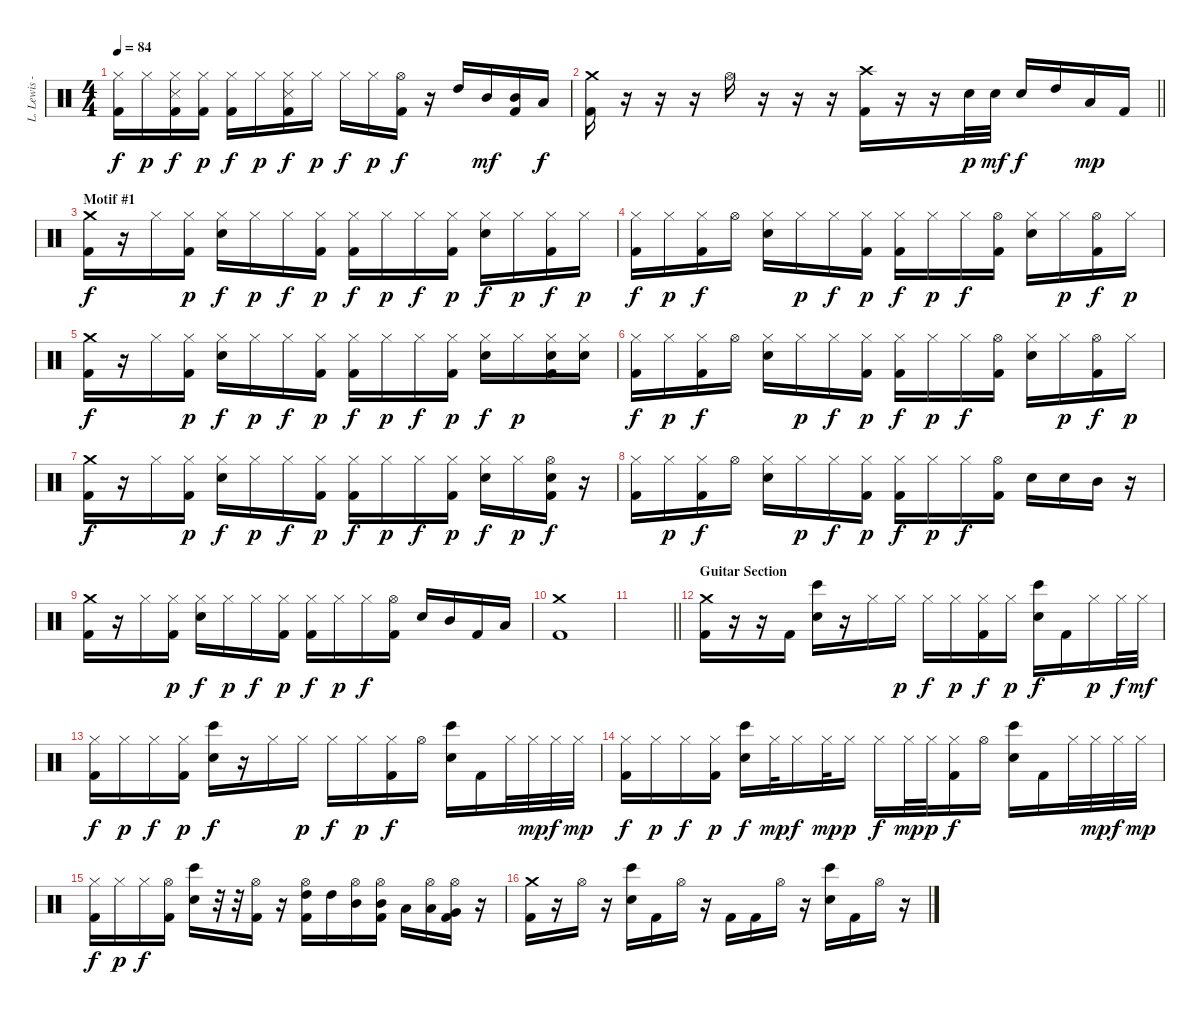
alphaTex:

\track ("L. Lewis - Drums" "L. Lewis -") {instrument percussion}
\staff {score}
\articulation defaults
\ts (4 4)
\tempo 84
\clef neutral
\ks c
("Hi-Hat (closed)" "Kick (hit) 2").16{dy f} "Hi-Hat (closed)".16{dy p} ("Hi-Hat (closed)" "Snare (side stick) 3" "Kick (hit) 2").16{dy f} ("Hi-Hat (closed)" "Kick (hit) 2").16{dy p} ("Hi-Hat (closed)" "Kick (hit) 2").16{dy f} "Hi-Hat (closed)".16{dy p} ("Hi-Hat (closed)" "Snare (side stick) 3" "Kick (hit) 2").16{dy f} "Hi-Hat (closed)".16{dy p} "Hi-Hat (closed)".16{dy f} "Hi-Hat (closed)".16{dy p} ("Hi-Hat (open)" "Kick (hit) 2").16{dy f} r.16 "High Tom (hit)".16 "Mid Tom (hit)".16{dy mf} ("Mid Tom (hit)" "Kick (hit) 2").16 "Low Tom (hit)".16{dy f} |
\barLineRight lightlight
("Crash medium (hit)" "Kick (hit) 2").16 r.16 r.16 r.16 "Hi-Hat (open)".16 r.16 r.16 r.16 ("Crash high (hit)" "Kick (hit) 2").16 r.16 r.16 "Electric Snare (hit)".32{dy p} "Electric Snare (hit)".32{dy mf} "Electric Snare (hit)".16{dy f} "High Tom (hit)".16 "Low Tom (hit)".16{dy mp} "Kick (hit) 2".16 |
\section ("" "Motif #1")
("Crash medium (hit)" "Kick (hit) 2").16{dy f} r.16 "Hi-Hat (closed)".16 ("Hi-Hat (closed)" "Kick (hit) 2").16{dy p} ("Hi-Hat (closed)" "Electric Snare (hit)").16{dy f} "Hi-Hat (closed)".16{dy p} "Hi-Hat (closed)".16{dy f} ("Hi-Hat (closed)" "Kick (hit) 2").16{dy p} ("Hi-Hat (closed)" "Kick (hit) 2").16{dy f} "Hi-Hat (closed)".16{dy p} "Hi-Hat (closed)".16{dy f} ("Hi-Hat (closed)" "Kick (hit) 2").16{dy p} ("Hi-Hat (closed)" "Electric Snare (hit)").16{dy f} "Hi-Hat (closed)".16{dy p} ("Hi-Hat (closed)" "Kick (hit) 2").16{dy f} "Hi-Hat (closed)".16{dy p} |
("Hi-Hat (closed)" "Kick (hit) 2").16{dy f} "Hi-Hat (closed)".16{dy p} ("Hi-Hat (closed)" "Kick (hit) 2").16{dy f} "Hi-Hat (open)".16 ("Hi-Hat (closed)" "Electric Snare (hit)").16 "Hi-Hat (closed)".16{dy p} "Hi-Hat (closed)".16{dy f} ("Hi-Hat (closed)" "Kick (hit) 2").16{dy p} ("Hi-Hat (closed)" "Kick (hit) 2").16{dy f} "Hi-Hat (closed)".16{dy p} "Hi-Hat (closed)".16{dy f} ("Hi-Hat (open)" "Kick (hit) 2").16 ("Hi-Hat (closed)" "Electric Snare (hit)").16 "Hi-Hat (closed)".16{dy p} ("Hi-Hat (open)" "Kick (hit) 2").16{dy f} "Hi-Hat (closed)".16{dy p} |
("Crash medium (hit)" "Kick (hit) 2").16{dy f} r.16 "Hi-Hat (closed)".16 ("Hi-Hat (closed)" "Kick (hit) 2").16{dy p} ("Hi-Hat (closed)" "Electric Snare (hit)").16{dy f} "Hi-Hat (closed)".16{dy p} "Hi-Hat (closed)".16{dy f} ("Hi-Hat (closed)" "Kick (hit) 2").16{dy p} ("Hi-Hat (closed)" "Kick (hit) 2").16{dy f} "Hi-Hat (closed)".16{dy p} "Hi-Hat (closed)".16{dy f} ("Hi-Hat (closed)" "Kick (hit) 2").16{dy p} ("Hi-Hat (closed)" "Electric Snare (hit)").16{dy f} "Hi-Hat (closed)".16{dy p} ("Hi-Hat (closed)" "Electric Snare (hit)" "Kick (hit) 2").16 ("Hi-Hat (closed)" "Electric Snare (hit)").16 |
("Hi-Hat (closed)" "Kick (hit) 2").16{dy f} "Hi-Hat (closed)".16{dy p} ("Hi-Hat (closed)" "Kick (hit) 2").16{dy f} "Hi-Hat (open)".16 ("Hi-Hat (closed)" "Electric Snare (hit)").16 "Hi-Hat (closed)".16{dy p} "Hi-Hat (closed)".16{dy f} ("Hi-Hat (closed)" "Kick (hit) 2").16{dy p} ("Hi-Hat (closed)" "Kick (hit) 2").16{dy f} "Hi-Hat (closed)".16{dy p} "Hi-Hat (closed)".16{dy f} ("Hi-Hat (open)" "Kick (hit) 2").16 ("Hi-Hat (closed)" "Electric Snare (hit)").16 "Hi-Hat (closed)".16{dy p} ("Hi-Hat (open)" "Kick (hit) 2").16{dy f} "Hi-Hat (closed)".16{dy p} |
("Crash medium (hit)" "Kick (hit) 2").16{dy f} r.16 "Hi-Hat (closed)".16 ("Hi-Hat (closed)" "Kick (hit) 2").16{dy p} ("Hi-Hat (closed)" "Electric Snare (hit)").16{dy f} "Hi-Hat (closed)".16{dy p} "Hi-Hat (closed)".16{dy f} ("Hi-Hat (closed)" "Kick (hit) 2").16{dy p} ("Hi-Hat (closed)" "Kick (hit) 2").16{dy f} "Hi-Hat (closed)".16{dy p} "Hi-Hat (closed)".16{dy f} ("Hi-Hat (closed)" "Kick (hit) 2").16{dy p} ("Hi-Hat (closed)" "Electric Snare (hit)").16{dy f} "Hi-Hat (closed)".16{dy p} ("Hi-Hat (open)" "Electric Snare (hit)" "Kick (hit) 2").16{dy f} r.16 |
("Hi-Hat (closed)" "Kick (hit) 2").16 "Hi-Hat (closed)".16{dy p} ("Hi-Hat (closed)" "Kick (hit) 2").16{dy f} "Hi-Hat (open)".16 ("Hi-Hat (closed)" "Electric Snare (hit)").16 "Hi-Hat (closed)".16{dy p} "Hi-Hat (closed)".16{dy f} ("Hi-Hat (closed)" "Kick (hit) 2").16{dy p} ("Hi-Hat (closed)" "Kick (hit) 2").16{dy f} "Hi-Hat (closed)".16{dy p} "Hi-Hat (closed)".16{dy f} ("Hi-Hat (open)" "Kick (hit) 2").16 "Electric Snare (hit)".16 "Electric Snare (hit)".16 "Mid Tom (hit)".16 r.16 |
("Crash medium (hit)" "Kick (hit) 2").16 r.16 "Hi-Hat (closed)".16 ("Hi-Hat (closed)" "Kick (hit) 2").16{dy p} ("Hi-Hat (closed)" "Electric Snare (hit)").16{dy f} "Hi-Hat (closed)".16{dy p} "Hi-Hat (closed)".16{dy f} ("Hi-Hat (closed)" "Kick (hit) 2").16{dy p} ("Hi-Hat (closed)" "Kick (hit) 2").16{dy f} "Hi-Hat (closed)".16{dy p} "Hi-Hat (closed)".16{dy f} ("Hi-Hat (open)" "Kick (hit) 2").16 "Electric Snare (hit)".16 "Mid Tom (hit)".16 "Kick (hit) 2".16 "Low Tom (hit)".16 |
("Crash medium (hit)" "Kick (hit) 2").1 |
\barLineRight lightlight
|
\section ("" "Guitar Section")
("Crash medium (hit)" "Kick (hit) 2").16 r.16 r.16 "Kick (hit) 2".16 ("Electric Snare (hit)" "Bongo High (hit)").16 r.16 "Hi-Hat (closed)".16 "Hi-Hat (closed)".16{dy p} "Hi-Hat (closed)".16{dy f} "Hi-Hat (closed)".16{dy p} ("Hi-Hat (closed)" "Kick (hit) 2").16{dy f} "Hi-Hat (closed)".16{dy p} ("Electric Snare (hit)" "Bongo High (hit)").16{dy f} "Kick (hit) 2".16 "Hi-Hat (closed)".16{dy p} "Hi-Hat (closed)".32{dy f} "Hi-Hat (closed)".32{dy mf} |
("Hi-Hat (closed)" "Kick (hit) 2").16{dy f} "Hi-Hat (closed)".16{dy p} "Hi-Hat (closed)".16{dy f} ("Hi-Hat (closed)" "Kick (hit) 2").16{dy p} ("Electric Snare (hit)" "Bongo High (hit)").16{dy f} r.16 "Hi-Hat (closed)".16 "Hi-Hat (closed)".16{dy p} "Hi-Hat (closed)".16{dy f} "Hi-Hat (closed)".16{dy p} ("Hi-Hat (closed)" "Kick (hit) 2").16{dy f} "Hi-Hat (open)".16 ("Electric Snare (hit)" "Bongo High (hit)").16 "Kick (hit) 2".16 "Hi-Hat (closed)".32 "Hi-Hat (closed)".32{dy mp} "Hi-Hat (closed)".32{dy f} "Hi-Hat (closed)".32{dy mp} |
("Hi-Hat (closed)" "Kick (hit) 2").16{dy f} "Hi-Hat (closed)".16{dy p} "Hi-Hat (closed)".16{dy f} ("Hi-Hat (closed)" "Kick (hit) 2").16{dy p} ("Electric Snare (hit)" "Bongo High (hit)").16{dy f} "Hi-Hat (closed)".32{dy mp} "Hi-Hat (closed)".16{dy f} "Hi-Hat (closed)".32{dy mp} "Hi-Hat (closed)".16{dy p} "Hi-Hat (closed)".16{dy f} "Hi-Hat (closed)".32{dy mp} "Hi-Hat (closed)".32{dy p} ("Hi-Hat (closed)" "Kick (hit) 2").16{dy f} "Hi-Hat (open)".16 ("Electric Snare (hit)" "Bongo High (hit)").16 "Kick (hit) 2".16 "Hi-Hat (closed)".32 "Hi-Hat (closed)".32{dy mp} "Hi-Hat (closed)".32{dy f} "Hi-Hat (closed)".32{dy mp} |
("Hi-Hat (closed)" "Kick (hit) 2").16{dy f} "Hi-Hat (closed)".16{dy p} "Hi-Hat (closed)".16{dy f} ("Hi-Hat (open)" "Kick (hit) 2").16 ("Electric Snare (hit)" "Bongo High (hit)").16 r.32 r.32 ("Hi-Hat (open)" "Kick (hit) 2").16 r.16 ("Hi-Hat (open)" "High Tom (hit)" "Kick (hit) 2").16 "High Tom (hit)".16 ("Hi-Hat (open)" "Mid Tom (hit)").16 ("Hi-Hat (open)" "Mid Tom (hit)" "Kick (hit) 2").16 "Low Tom (hit)".16 ("Hi-Hat (open)" "Low Tom (hit)").16 ("Hi-Hat (open)" "Very Low Tom (hit)" "Kick (hit) 2").16 r.16 |
("Crash medium (hit)" "Kick (hit) 2").16 r.16 "Hi-Hat (open)".16 r.16 ("Electric Snare (hit)" "Bongo High (hit)").16 "Kick (hit) 2".16 "Hi-Hat (open)".16 r.16 "Kick (hit) 2".16 "Kick (hit) 2".16 "Hi-Hat (open)".16 r.16 ("Electric Snare (hit)" "Bongo High (hit)").16 "Kick (hit) 2".16 "Hi-Hat (open)".16 r.16
